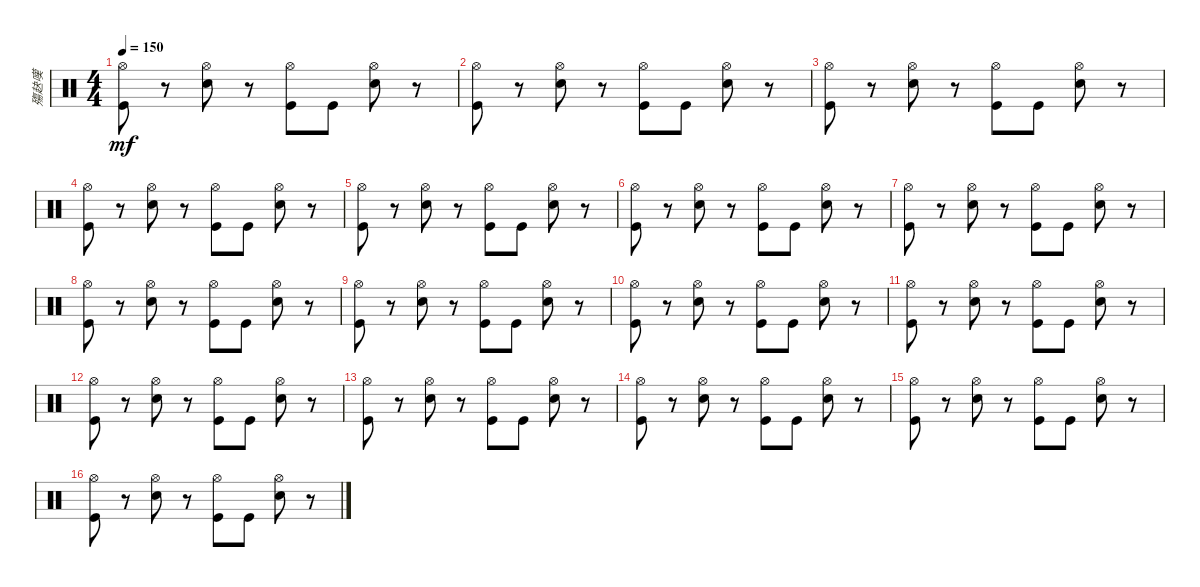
\track ("殤赽嘆" "殤赽嘆") {instrument percussion}
\staff {score}
\articulation defaults
\ts (4 4)
\tempo 150
\clef neutral
\ks c
("Hi-Hat (open)" "Kick (hit)").8{dy mf} r.8 ("Hi-Hat (open)" "Snare (hit) 2").8 r.8 ("Hi-Hat (open)" "Kick (hit)").8 "Kick (hit)".8 ("Hi-Hat (open)" "Snare (hit) 2").8 r.8 |
("Hi-Hat (open)" "Kick (hit)").8 r.8 ("Hi-Hat (open)" "Snare (hit) 2").8 r.8 ("Hi-Hat (open)" "Kick (hit)").8 "Kick (hit)".8 ("Hi-Hat (open)" "Snare (hit) 2").8 r.8 |
("Hi-Hat (open)" "Kick (hit)").8 r.8 ("Hi-Hat (open)" "Snare (hit) 2").8 r.8 ("Hi-Hat (open)" "Kick (hit)").8 "Kick (hit)".8 ("Hi-Hat (open)" "Snare (hit) 2").8 r.8 |
("Hi-Hat (open)" "Kick (hit)").8 r.8 ("Hi-Hat (open)" "Snare (hit) 2").8 r.8 ("Hi-Hat (open)" "Kick (hit)").8 "Kick (hit)".8 ("Hi-Hat (open)" "Snare (hit) 2").8 r.8 |
("Hi-Hat (open)" "Kick (hit)").8 r.8 ("Hi-Hat (open)" "Snare (hit) 2").8 r.8 ("Hi-Hat (open)" "Kick (hit)").8 "Kick (hit)".8 ("Hi-Hat (open)" "Snare (hit) 2").8 r.8 |
("Hi-Hat (open)" "Kick (hit)").8 r.8 ("Hi-Hat (open)" "Snare (hit) 2").8 r.8 ("Hi-Hat (open)" "Kick (hit)").8 "Kick (hit)".8 ("Hi-Hat (open)" "Snare (hit) 2").8 r.8 |
("Hi-Hat (open)" "Kick (hit)").8 r.8 ("Hi-Hat (open)" "Snare (hit) 2").8 r.8 ("Hi-Hat (open)" "Kick (hit)").8 "Kick (hit)".8 ("Hi-Hat (open)" "Snare (hit) 2").8 r.8 |
("Hi-Hat (open)" "Kick (hit)").8 r.8 ("Hi-Hat (open)" "Snare (hit) 2").8 r.8 ("Hi-Hat (open)" "Kick (hit)").8 "Kick (hit)".8 ("Hi-Hat (open)" "Snare (hit) 2").8 r.8 |
("Hi-Hat (open)" "Kick (hit)").8 r.8 ("Hi-Hat (open)" "Snare (hit) 2").8 r.8 ("Hi-Hat (open)" "Kick (hit)").8 "Kick (hit)".8 ("Hi-Hat (open)" "Snare (hit) 2").8 r.8 |
("Hi-Hat (open)" "Kick (hit)").8 r.8 ("Hi-Hat (open)" "Snare (hit) 2").8 r.8 ("Hi-Hat (open)" "Kick (hit)").8 "Kick (hit)".8 ("Hi-Hat (open)" "Snare (hit) 2").8 r.8 |
("Hi-Hat (open)" "Kick (hit)").8 r.8 ("Hi-Hat (open)" "Snare (hit) 2").8 r.8 ("Hi-Hat (open)" "Kick (hit)").8 "Kick (hit)".8 ("Hi-Hat (open)" "Snare (hit) 2").8 r.8 |
("Hi-Hat (open)" "Kick (hit)").8 r.8 ("Hi-Hat (open)" "Snare (hit) 2").8 r.8 ("Hi-Hat (open)" "Kick (hit)").8 "Kick (hit)".8 ("Hi-Hat (open)" "Snare (hit) 2").8 r.8 |
("Hi-Hat (open)" "Kick (hit)").8 r.8 ("Hi-Hat (open)" "Snare (hit) 2").8 r.8 ("Hi-Hat (open)" "Kick (hit)").8 "Kick (hit)".8 ("Hi-Hat (open)" "Snare (hit) 2").8 r.8 |
("Hi-Hat (open)" "Kick (hit)").8 r.8 ("Hi-Hat (open)" "Snare (hit) 2").8 r.8 ("Hi-Hat (open)" "Kick (hit)").8 "Kick (hit)".8 ("Hi-Hat (open)" "Snare (hit) 2").8 r.8 |
("Hi-Hat (open)" "Kick (hit)").8 r.8 ("Hi-Hat (open)" "Snare (hit) 2").8 r.8 ("Hi-Hat (open)" "Kick (hit)").8 "Kick (hit)".8 ("Hi-Hat (open)" "Snare (hit) 2").8 r.8 |
("Hi-Hat (open)" "Kick (hit)").8 r.8 ("Hi-Hat (open)" "Snare (hit) 2").8 r.8 ("Hi-Hat (open)" "Kick (hit)").8 "Kick (hit)".8 ("Hi-Hat (open)" "Snare (hit) 2").8 r.8
